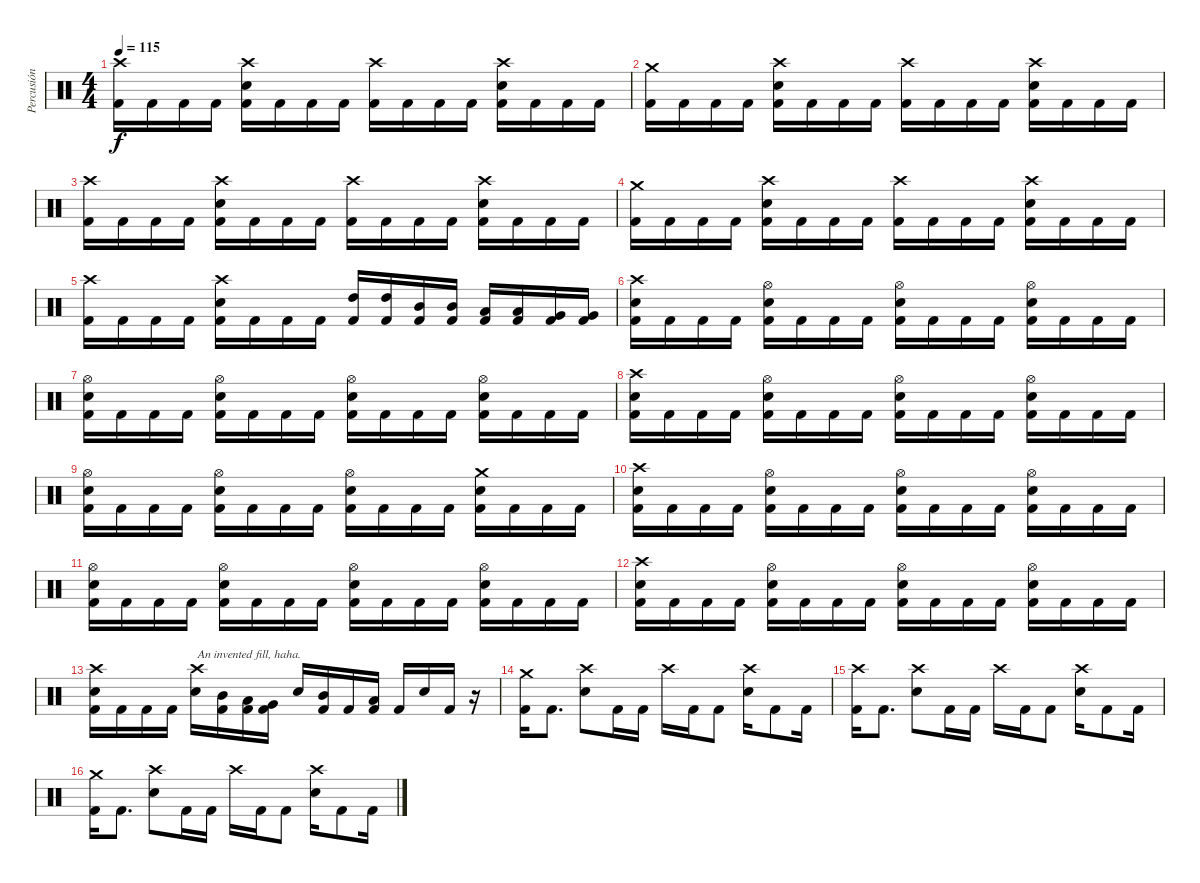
\track ("Percusión" "Percusión") {instrument percussion}
\staff {score}
\articulation defaults
\ts (4 4)
\tempo 115
\clef neutral
\ks c
("Crash high (hit)" "Kick (hit) 2").16{dy f} "Kick (hit) 2".16 "Kick (hit) 2".16 "Kick (hit) 2".16 ("Crash high (hit)" "Snare (hit) 2" "Kick (hit) 2").16 "Kick (hit) 2".16 "Kick (hit) 2".16 "Kick (hit) 2".16 ("Crash high (hit)" "Kick (hit) 2").16 "Kick (hit) 2".16 "Kick (hit) 2".16 "Kick (hit) 2".16 ("Crash high (hit)" "Snare (hit) 2" "Kick (hit) 2").16 "Kick (hit) 2".16 "Kick (hit) 2".16 "Kick (hit) 2".16 |
("Crash medium (hit)" "Kick (hit) 2").16 "Kick (hit) 2".16 "Kick (hit) 2".16 "Kick (hit) 2".16 ("Crash high (hit)" "Snare (hit) 2" "Kick (hit) 2").16 "Kick (hit) 2".16 "Kick (hit) 2".16 "Kick (hit) 2".16 ("Crash high (hit)" "Kick (hit) 2").16 "Kick (hit) 2".16 "Kick (hit) 2".16 "Kick (hit) 2".16 ("Crash high (hit)" "Snare (hit) 2" "Kick (hit) 2").16 "Kick (hit) 2".16 "Kick (hit) 2".16 "Kick (hit) 2".16 |
("Crash high (hit)" "Kick (hit) 2").16 "Kick (hit) 2".16 "Kick (hit) 2".16 "Kick (hit) 2".16 ("Crash high (hit)" "Snare (hit) 2" "Kick (hit) 2").16 "Kick (hit) 2".16 "Kick (hit) 2".16 "Kick (hit) 2".16 ("Crash high (hit)" "Kick (hit) 2").16 "Kick (hit) 2".16 "Kick (hit) 2".16 "Kick (hit) 2".16 ("Crash high (hit)" "Snare (hit) 2" "Kick (hit) 2").16 "Kick (hit) 2".16 "Kick (hit) 2".16 "Kick (hit) 2".16 |
("Crash medium (hit)" "Kick (hit) 2").16 "Kick (hit) 2".16 "Kick (hit) 2".16 "Kick (hit) 2".16 ("Crash high (hit)" "Snare (hit) 2" "Kick (hit) 2").16 "Kick (hit) 2".16 "Kick (hit) 2".16 "Kick (hit) 2".16 ("Crash high (hit)" "Kick (hit) 2").16 "Kick (hit) 2".16 "Kick (hit) 2".16 "Kick (hit) 2".16 ("Crash high (hit)" "Snare (hit) 2" "Kick (hit) 2").16 "Kick (hit) 2".16 "Kick (hit) 2".16 "Kick (hit) 2".16 |
("Crash high (hit)" "Kick (hit) 2").16 "Kick (hit) 2".16 "Kick (hit) 2".16 "Kick (hit) 2".16 ("Crash high (hit)" "Snare (hit) 2" "Kick (hit) 2").16 "Kick (hit) 2".16 "Kick (hit) 2".16 "Kick (hit) 2".16 ("High Tom (hit)" "Kick (hit) 2").16 ("High Tom (hit)" "Kick (hit) 2").16 ("Mid Tom (hit)" "Kick (hit) 2").16 ("Mid Tom (hit)" "Kick (hit) 2").16 ("Low Tom (hit)" "Kick (hit) 2").16 ("Low Tom (hit)" "Kick (hit) 2").16 ("Very Low Tom (hit)" "Kick (hit) 2").16 ("Very Low Tom (hit)" "Kick (hit) 2").16 |
("Crash high (hit)" "Snare (hit) 2" "Kick (hit) 2").16 "Kick (hit) 2".16 "Kick (hit) 2".16 "Kick (hit) 2".16 ("Hi-Hat (open)" "Snare (hit) 2" "Kick (hit) 2").16 "Kick (hit) 2".16 "Kick (hit) 2".16 "Kick (hit) 2".16 ("Hi-Hat (open)" "Snare (hit) 2" "Kick (hit) 2").16 "Kick (hit) 2".16 "Kick (hit) 2".16 "Kick (hit) 2".16 ("Hi-Hat (open)" "Snare (hit) 2" "Kick (hit) 2").16 "Kick (hit) 2".16 "Kick (hit) 2".16 "Kick (hit) 2".16 |
("Hi-Hat (open)" "Snare (hit) 2" "Kick (hit) 2").16 "Kick (hit) 2".16 "Kick (hit) 2".16 "Kick (hit) 2".16 ("Hi-Hat (open)" "Snare (hit) 2" "Kick (hit) 2").16 "Kick (hit) 2".16 "Kick (hit) 2".16 "Kick (hit) 2".16 ("Hi-Hat (open)" "Snare (hit) 2" "Kick (hit) 2").16 "Kick (hit) 2".16 "Kick (hit) 2".16 "Kick (hit) 2".16 ("Hi-Hat (open)" "Snare (hit) 2" "Kick (hit) 2").16 "Kick (hit) 2".16 "Kick (hit) 2".16 "Kick (hit) 2".16 |
("Crash high (hit)" "Snare (hit) 2" "Kick (hit) 2").16 "Kick (hit) 2".16 "Kick (hit) 2".16 "Kick (hit) 2".16 ("Hi-Hat (open)" "Snare (hit) 2" "Kick (hit) 2").16 "Kick (hit) 2".16 "Kick (hit) 2".16 "Kick (hit) 2".16 ("Hi-Hat (open)" "Snare (hit) 2" "Kick (hit) 2").16 "Kick (hit) 2".16 "Kick (hit) 2".16 "Kick (hit) 2".16 ("Hi-Hat (open)" "Snare (hit) 2" "Kick (hit) 2").16 "Kick (hit) 2".16 "Kick (hit) 2".16 "Kick (hit) 2".16 |
("Hi-Hat (open)" "Snare (hit) 2" "Kick (hit) 2").16 "Kick (hit) 2".16 "Kick (hit) 2".16 "Kick (hit) 2".16 ("Hi-Hat (open)" "Snare (hit) 2" "Kick (hit) 2").16 "Kick (hit) 2".16 "Kick (hit) 2".16 "Kick (hit) 2".16 ("Hi-Hat (open)" "Snare (hit) 2" "Kick (hit) 2").16 "Kick (hit) 2".16 "Kick (hit) 2".16 "Kick (hit) 2".16 ("Crash medium (hit)" "Snare (hit) 2" "Kick (hit) 2").16 "Kick (hit) 2".16 "Kick (hit) 2".16 "Kick (hit) 2".16 |
("Crash high (hit)" "Snare (hit) 2" "Kick (hit) 2").16 "Kick (hit) 2".16 "Kick (hit) 2".16 "Kick (hit) 2".16 ("Hi-Hat (open)" "Snare (hit) 2" "Kick (hit) 2").16 "Kick (hit) 2".16 "Kick (hit) 2".16 "Kick (hit) 2".16 ("Hi-Hat (open)" "Snare (hit) 2" "Kick (hit) 2").16 "Kick (hit) 2".16 "Kick (hit) 2".16 "Kick (hit) 2".16 ("Hi-Hat (open)" "Snare (hit) 2" "Kick (hit) 2").16 "Kick (hit) 2".16 "Kick (hit) 2".16 "Kick (hit) 2".16 |
("Hi-Hat (open)" "Snare (hit) 2" "Kick (hit) 2").16 "Kick (hit) 2".16 "Kick (hit) 2".16 "Kick (hit) 2".16 ("Hi-Hat (open)" "Snare (hit) 2" "Kick (hit) 2").16 "Kick (hit) 2".16 "Kick (hit) 2".16 "Kick (hit) 2".16 ("Hi-Hat (open)" "Snare (hit) 2" "Kick (hit) 2").16 "Kick (hit) 2".16 "Kick (hit) 2".16 "Kick (hit) 2".16 ("Hi-Hat (open)" "Snare (hit) 2" "Kick (hit) 2").16 "Kick (hit) 2".16 "Kick (hit) 2".16 "Kick (hit) 2".16 |
("Crash high (hit)" "Snare (hit) 2" "Kick (hit) 2").16 "Kick (hit) 2".16 "Kick (hit) 2".16 "Kick (hit) 2".16 ("Hi-Hat (open)" "Snare (hit) 2" "Kick (hit) 2").16 "Kick (hit) 2".16 "Kick (hit) 2".16 "Kick (hit) 2".16 ("Hi-Hat (open)" "Snare (hit) 2" "Kick (hit) 2").16 "Kick (hit) 2".16 "Kick (hit) 2".16 "Kick (hit) 2".16 ("Hi-Hat (open)" "Snare (hit) 2" "Kick (hit) 2").16 "Kick (hit) 2".16 "Kick (hit) 2".16 "Kick (hit) 2".16 |
("Crash high (hit)" "Snare (hit) 2" "Kick (hit) 2").16 "Kick (hit) 2".16 "Kick (hit) 2".16 "Kick (hit) 2".16 ("Crash high (hit)" "Snare (hit) 2").16{txt "An invented fill, haha."} ("Mid Tom (hit)" "Kick (hit) 2").16 ("Low Tom (hit)" "Kick (hit) 2").16 ("Very Low Tom (hit)" "Kick (hit) 2").16 "Snare (hit) 2".16 ("Mid Tom (hit)" "Kick (hit) 2").16 "Kick (hit) 2".16 ("Low Tom (hit)" "Kick (hit) 2").16 "Kick (hit) 2".16 "Snare (hit) 2".16 "Kick (hit) 2".16 r.16 |
("Crash medium (hit)" "Kick (hit) 2").16 "Kick (hit) 2".8{d} ("Crash high (hit)" "Snare (hit) 2").8 "Kick (hit) 2".16 "Kick (hit) 2".16 "Crash high (hit)".16 "Kick (hit) 2".16 "Kick (hit) 2".8 ("Crash high (hit)" "Snare (hit) 2").16 "Kick (hit) 2".8 "Kick (hit) 2".16 |
("Crash high (hit)" "Kick (hit) 2").16 "Kick (hit) 2".8{d} ("Crash high (hit)" "Snare (hit) 2").8 "Kick (hit) 2".16 "Kick (hit) 2".16 "Crash high (hit)".16 "Kick (hit) 2".16 "Kick (hit) 2".8 ("Crash high (hit)" "Snare (hit) 2").16 "Kick (hit) 2".8 "Kick (hit) 2".16 |
("Crash medium (hit)" "Kick (hit) 2").16 "Kick (hit) 2".8{d} ("Crash high (hit)" "Snare (hit) 2").8 "Kick (hit) 2".16 "Kick (hit) 2".16 "Crash high (hit)".16 "Kick (hit) 2".16 "Kick (hit) 2".8 ("Crash high (hit)" "Snare (hit) 2").16 "Kick (hit) 2".8 "Kick (hit) 2".16
